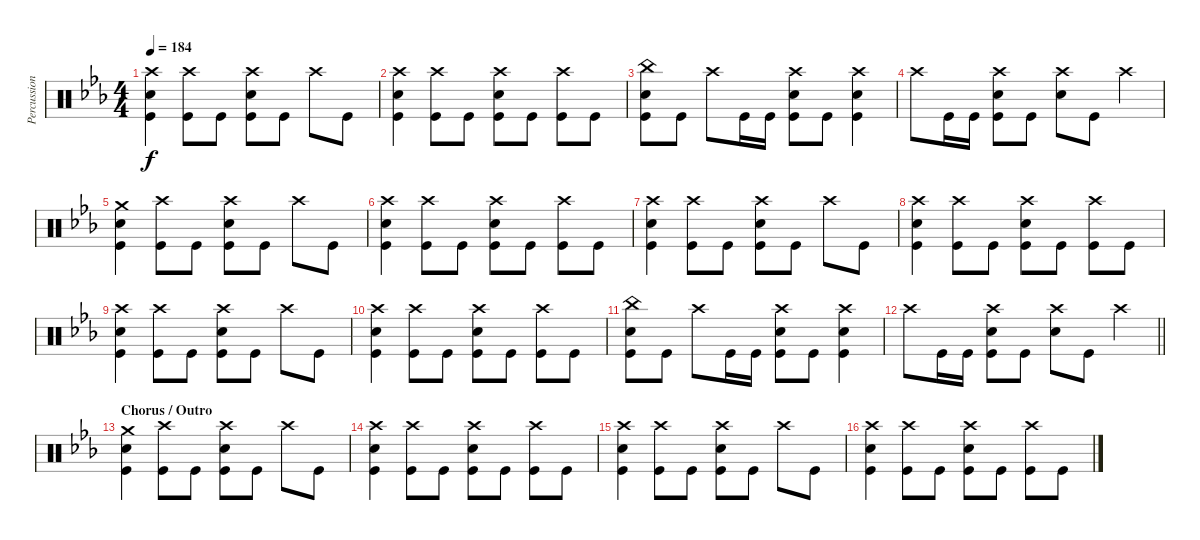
\track ("Percussion" "Percussion") {instrument percussion}
\staff {score}
\articulation defaults
\ts (4 4)
\tempo 184
\clef neutral
\ks eb
("Crash high (hit)" "Electric Snare (hit)" "Kick (hit)").4{dy f} ("Crash high (hit)" "Kick (hit)").8 "Kick (hit)".8 ("Crash high (hit)" "Electric Snare (hit)" "Kick (hit)").8 "Kick (hit)".8 "Crash high (hit)".8 "Kick (hit)".8 |
("Crash high (hit)" "Electric Snare (hit)" "Kick (hit)").4 ("Crash high (hit)" "Kick (hit)").8 "Kick (hit)".8 ("Crash high (hit)" "Electric Snare (hit)" "Kick (hit)").8 "Kick (hit)".8 ("Crash high (hit)" "Kick (hit)").8 "Kick (hit)".8 |
("China (hit)" "Electric Snare (hit)" "Kick (hit)").8 "Kick (hit)".8 "Crash high (hit)".8 "Kick (hit)".16 "Kick (hit)".16 ("Crash high (hit)" "Electric Snare (hit)" "Kick (hit)").8 "Kick (hit)".8 ("Crash high (hit)" "Electric Snare (hit)" "Kick (hit)").4 |
"Crash high (hit)".8 "Kick (hit)".16 "Kick (hit)".16 ("Crash high (hit)" "Electric Snare (hit)" "Kick (hit)").8 "Kick (hit)".8 ("Crash high (hit)" "Electric Snare (hit)").8 "Kick (hit)".8 "Crash high (hit)".4 |
("Crash medium (hit)" "Electric Snare (hit)" "Kick (hit)").4 ("Crash high (hit)" "Kick (hit)").8 "Kick (hit)".8 ("Crash high (hit)" "Electric Snare (hit)" "Kick (hit)").8 "Kick (hit)".8 "Crash high (hit)".8 "Kick (hit)".8 |
("Crash high (hit)" "Electric Snare (hit)" "Kick (hit)").4 ("Crash high (hit)" "Kick (hit)").8 "Kick (hit)".8 ("Crash high (hit)" "Electric Snare (hit)" "Kick (hit)").8 "Kick (hit)".8 ("Crash high (hit)" "Kick (hit)").8 "Kick (hit)".8 |
("Crash high (hit)" "Electric Snare (hit)" "Kick (hit)").4 ("Crash high (hit)" "Kick (hit)").8 "Kick (hit)".8 ("Crash high (hit)" "Electric Snare (hit)" "Kick (hit)").8 "Kick (hit)".8 "Crash high (hit)".8 "Kick (hit)".8 |
("Crash high (hit)" "Electric Snare (hit)" "Kick (hit)").4 ("Crash high (hit)" "Kick (hit)").8 "Kick (hit)".8 ("Crash high (hit)" "Electric Snare (hit)" "Kick (hit)").8 "Kick (hit)".8 ("Crash high (hit)" "Kick (hit)").8 "Kick (hit)".8 |
("Crash high (hit)" "Electric Snare (hit)" "Kick (hit)").4 ("Crash high (hit)" "Kick (hit)").8 "Kick (hit)".8 ("Crash high (hit)" "Electric Snare (hit)" "Kick (hit)").8 "Kick (hit)".8 "Crash high (hit)".8 "Kick (hit)".8 |
("Crash high (hit)" "Electric Snare (hit)" "Kick (hit)").4 ("Crash high (hit)" "Kick (hit)").8 "Kick (hit)".8 ("Crash high (hit)" "Electric Snare (hit)" "Kick (hit)").8 "Kick (hit)".8 ("Crash high (hit)" "Kick (hit)").8 "Kick (hit)".8 |
("China (hit)" "Electric Snare (hit)" "Kick (hit)").8 "Kick (hit)".8 "Crash high (hit)".8 "Kick (hit)".16 "Kick (hit)".16 ("Crash high (hit)" "Electric Snare (hit)" "Kick (hit)").8 "Kick (hit)".8 ("Crash high (hit)" "Electric Snare (hit)" "Kick (hit)").4 |
\barLineRight lightlight "Crash high (hit)".8 "Kick (hit)".16 "Kick (hit)".16
("Crash high (hit)" "Electric Snare (hit)" "Kick (hit)").8 "Kick (hit)".8 ("Crash high (hit)" "Electric Snare (hit)").8 "Kick (hit)".8 "Crash high (hit)".4 |
\section ("" "Chorus / Outro")
("Crash medium (hit)" "Electric Snare (hit)" "Kick (hit)").4 ("Crash high (hit)" "Kick (hit)").8 "Kick (hit)".8 ("Crash high (hit)" "Electric Snare (hit)" "Kick (hit)").8 "Kick (hit)".8 "Crash high (hit)".8 "Kick (hit)".8 |
("Crash high (hit)" "Electric Snare (hit)" "Kick (hit)").4 ("Crash high (hit)" "Kick (hit)").8 "Kick (hit)".8 ("Crash high (hit)" "Electric Snare (hit)" "Kick (hit)").8 "Kick (hit)".8 ("Crash high (hit)" "Kick (hit)").8 "Kick (hit)".8 |
("Crash high (hit)" "Electric Snare (hit)" "Kick (hit)").4 ("Crash high (hit)" "Kick (hit)").8 "Kick (hit)".8 ("Crash high (hit)" "Electric Snare (hit)" "Kick (hit)").8 "Kick (hit)".8 "Crash high (hit)".8 "Kick (hit)".8 |
("Crash high (hit)" "Electric Snare (hit)" "Kick (hit)").4 ("Crash high (hit)" "Kick (hit)").8 "Kick (hit)".8 ("Crash high (hit)" "Electric Snare (hit)" "Kick (hit)").8 "Kick (hit)".8 ("Crash high (hit)" "Kick (hit)").8 "Kick (hit)".8
